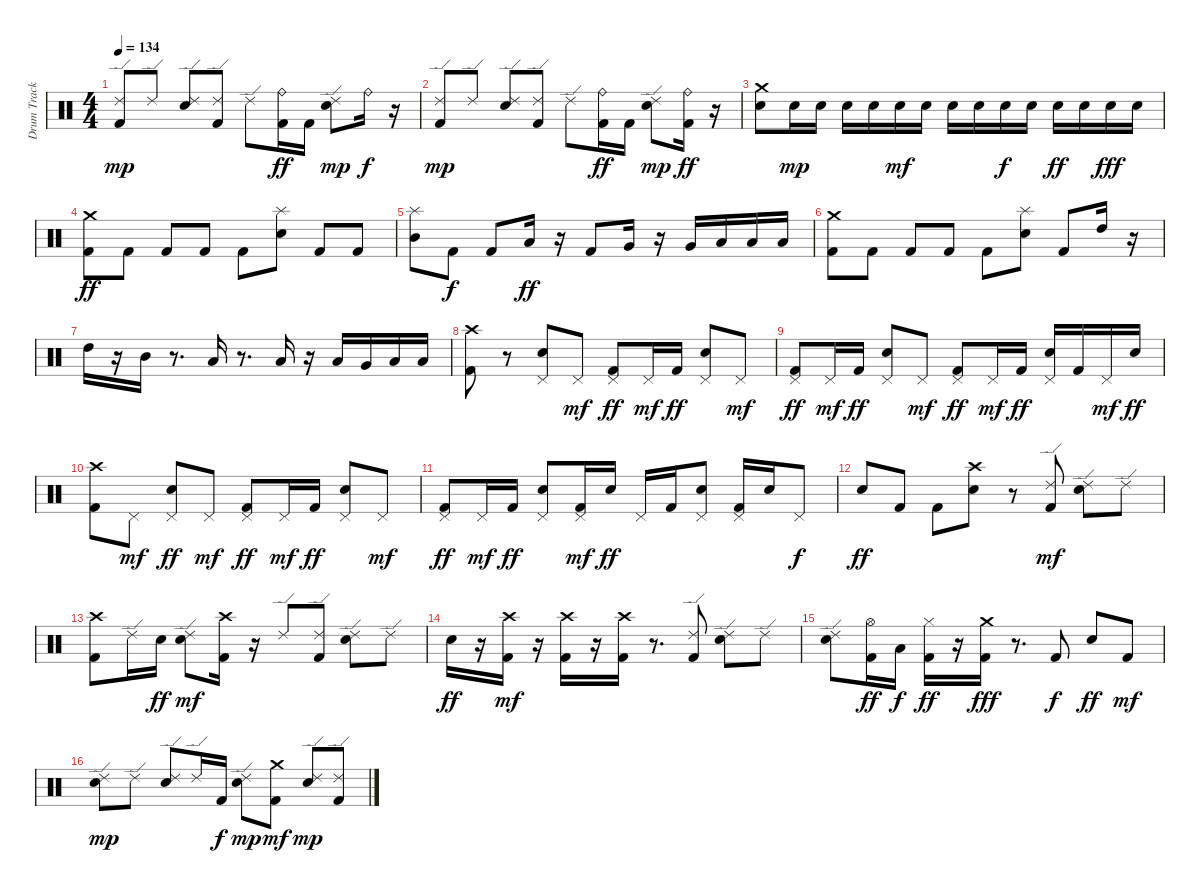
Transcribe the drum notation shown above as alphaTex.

\track ("Drum Track" "Drum Track") {instrument percussion}
\staff {score}
\articulation defaults
\ts (4 4)
\tempo 134
\clef neutral
\ks c
("Kick (hit) 2" "Ride (edge) 2").8{dy mp} "Ride (edge) 2".8 ("Electric Snare (hit)" "Ride (edge) 2").8 ("Kick (hit) 2" "Ride (edge) 2").8 "Ride (edge) 2".8 ("Kick (hit) 2" "Ride (bell)").16{dy ff} "Kick (hit) 2".16 ("Electric Snare (hit)" "Ride (edge) 2").8{dy mp} "Ride (bell)".16{dy f} r.16 |
("Kick (hit) 2" "Ride (edge) 2").8{dy mp} "Ride (edge) 2".8 ("Electric Snare (hit)" "Ride (edge) 2").8 ("Kick (hit) 2" "Ride (edge) 2").8 "Ride (edge) 2".8 ("Kick (hit) 2" "Ride (bell)").16{dy ff} "Kick (hit) 2".16 ("Electric Snare (hit)" "Ride (edge) 2").8{dy mp} ("Kick (hit) 2" "Ride (bell)").16{dy ff} r.16 |
("Electric Snare (hit)" "Crash medium (hit)").8 "Electric Snare (hit)".16{dy mp} "Electric Snare (hit)".16 "Electric Snare (hit)".16 "Electric Snare (hit)".16 "Electric Snare (hit)".16{dy mf} "Electric Snare (hit)".16 "Electric Snare (hit)".16 "Electric Snare (hit)".16 "Electric Snare (hit)".16{dy f} "Electric Snare (hit)".16 "Electric Snare (hit)".16{dy ff} "Electric Snare (hit)".16 "Electric Snare (hit)".16{dy fff} "Electric Snare (hit)".16 |
("Kick (hit) 2" "Crash medium (hit)").8{dy ff} "Kick (hit) 2".8 "Kick (hit) 2".8 "Kick (hit) 2".8 "Kick (hit) 2".8 ("Electric Snare (hit)" "Splash (hit)").8 "Kick (hit) 2".8 "Kick (hit) 2".8 |
("Mid Tom (hit)" "Splash (hit)").8 "Kick (hit) 2".8{dy f} "Kick (hit) 2".8 "Low Tom (hit)".16{dy ff} r.16 "Kick (hit) 2".8 "Very Low Tom (hit)".16 r.16 "Very Low Tom (hit)".16 "Low Floor Tom (hit)".16 "Low Floor Tom (hit)".16 "Low Floor Tom (hit)".16 |
("Kick (hit) 2" "Crash medium (hit)").8 "Kick (hit) 2".8 "Kick (hit) 2".8 "Kick (hit) 2".8 "Kick (hit) 2".8 ("Electric Snare (hit)" "Splash (hit)").8 "Kick (hit) 2".8 "High Tom (hit)".16 r.16 |
"High Tom (hit)".16 r.16 "Mid Tom (hit)".16 r.8{d} "Low Tom (hit)".16 r.8{d} "Low Tom (hit)".16 r.16 "Low Tom (hit)".16 "Very Low Tom (hit)".16 "Low Floor Tom (hit)".16 "Low Floor Tom (hit)".16 |
("Kick (hit) 2" "Crash high (hit)").8 r.8 ("Electric Snare (hit)" "Pedal Hi-Hat (hit)").8 "Pedal Hi-Hat (hit)".8{dy mf} ("Kick (hit) 2" "Pedal Hi-Hat (hit)").8{dy ff} "Pedal Hi-Hat (hit)".16{dy mf} "Kick (hit) 2".16{dy ff} ("Electric Snare (hit)" "Pedal Hi-Hat (hit)").8 "Pedal Hi-Hat (hit)".8{dy mf} |
("Kick (hit) 2" "Pedal Hi-Hat (hit)").8{dy ff} "Pedal Hi-Hat (hit)".16{dy mf} "Kick (hit) 2".16{dy ff} ("Electric Snare (hit)" "Pedal Hi-Hat (hit)").8 "Pedal Hi-Hat (hit)".8{dy mf} ("Kick (hit) 2" "Pedal Hi-Hat (hit)").8{dy ff} "Pedal Hi-Hat (hit)".16{dy mf} "Kick (hit) 2".16{dy ff} ("Electric Snare (hit)" "Pedal Hi-Hat (hit)").16 "Kick (hit) 2".16 "Pedal Hi-Hat (hit)".16{dy mf} "Electric Snare (hit)".16{dy ff} |
("Kick (hit) 2" "Crash high (hit)").8 "Pedal Hi-Hat (hit)".8{dy mf} ("Electric Snare (hit)" "Pedal Hi-Hat (hit)").8{dy ff} "Pedal Hi-Hat (hit)".8{dy mf} ("Kick (hit) 2" "Pedal Hi-Hat (hit)").8{dy ff} "Pedal Hi-Hat (hit)".16{dy mf} "Kick (hit) 2".16{dy ff} ("Electric Snare (hit)" "Pedal Hi-Hat (hit)").8 "Pedal Hi-Hat (hit)".8{dy mf} |
("Kick (hit) 2" "Pedal Hi-Hat (hit)").8{dy ff} "Pedal Hi-Hat (hit)".16{dy mf} "Kick (hit) 2".16{dy ff} ("Electric Snare (hit)" "Pedal Hi-Hat (hit)").8 ("Kick (hit) 2" "Pedal Hi-Hat (hit)").16{dy mf} "Electric Snare (hit)".16{dy ff} "Pedal Hi-Hat (hit)".16 "Kick (hit) 2".16 ("Electric Snare (hit)" "Pedal Hi-Hat (hit)").8 ("Kick (hit) 2" "Pedal Hi-Hat (hit)").16 "Electric Snare (hit)".16 "Pedal Hi-Hat (hit)".8{dy f} |
"Electric Snare (hit)".8{dy ff} "Kick (hit) 2".8 "Kick (hit) 2".8 ("Electric Snare (hit)" "Crash high (hit)").8 r.8 ("Kick (hit) 2" "Ride (edge) 2").8{dy mf} ("Electric Snare (hit)" "Ride (edge) 2").8 "Ride (edge) 2".8 |
("Kick (hit) 2" "Crash high (hit)").8 "Ride (edge) 2".16 "Electric Snare (hit)".16{dy ff} ("Electric Snare (hit)" "Ride (edge) 2").8{dy mf} ("Kick (hit) 2" "Crash high (hit)").16 r.16 "Ride (edge) 2".8 ("Kick (hit) 2" "Ride (edge) 2").8 ("Electric Snare (hit)" "Ride (edge) 2").8 "Ride (edge) 2".8 |
"Electric Snare (hit)".16{dy ff} r.16 ("Kick (hit) 2" "Crash high (hit)").16{dy mf} r.16 ("Kick (hit) 2" "Crash high (hit)").16 r.16 ("Kick (hit) 2" "Crash high (hit)").16 r.8{d} ("Kick (hit) 2" "Ride (edge) 2").8 ("Electric Snare (hit)" "Ride (edge) 2").8 "Ride (edge) 2".8 |
("Electric Snare (hit)" "Ride (edge) 2").8 ("Kick (hit) 2" "Hi-Hat (open)").16{dy ff} "Low Tom (hit)".16{dy f} ("Kick (hit) 2" "Hi-Hat (closed)").16{dy ff} r.16 ("Kick (hit) 2" "Crash medium (hit)").16{dy fff} r.8{d} "Kick (hit) 2".8{dy f} "Electric Snare (hit)".8{dy ff} "Kick (hit) 2".8{dy mf} |
("Electric Snare (hit)" "Ride (edge) 2").8{dy mp} "Ride (edge) 2".8 ("Electric Snare (hit)" "Ride (edge) 2").8 "Ride (edge) 2".16 "Kick (hit) 2".16{dy f} ("Electric Snare (hit)" "Ride (edge) 2").8{dy mp} ("Kick (hit) 2" "Crash medium (hit)").8{dy mf} ("Electric Snare (hit)" "Ride (edge) 2").8{dy mp} ("Kick (hit) 2" "Ride (edge) 2").8
